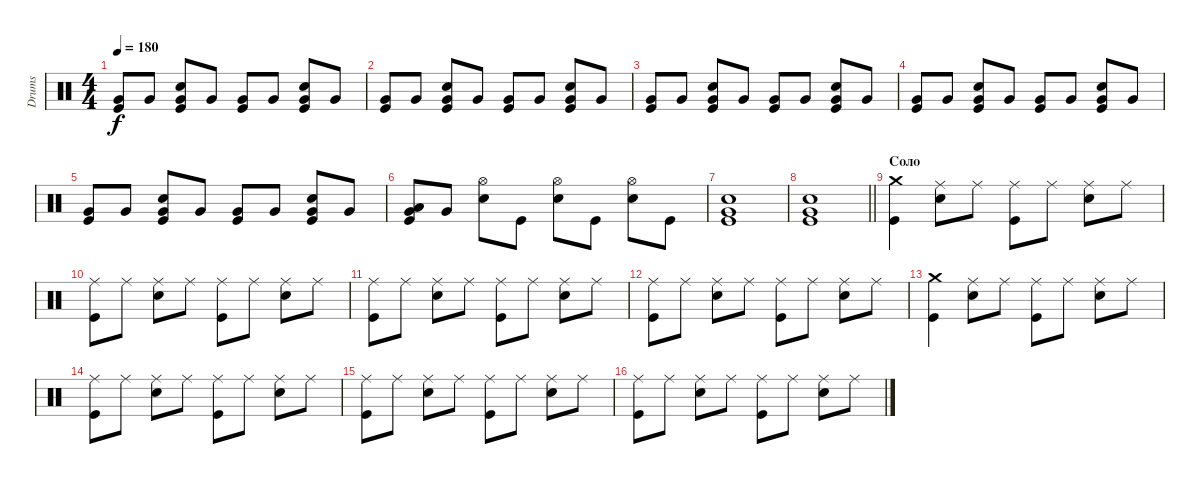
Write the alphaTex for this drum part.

\track ("Drums" "Drums") {instrument percussion}
\staff {score}
\articulation defaults
\ts (4 4)
\tempo 180
\clef neutral
\ks c
("Kick (hit)" "Very Low Tom (hit)").8{dy f} "Very Low Tom (hit)".8 ("Kick (hit)" "Snare (hit) 2" "Very Low Tom (hit)").8{bd 60} "Very Low Tom (hit)".8 ("Kick (hit)" "Very Low Tom (hit)").8 "Very Low Tom (hit)".8 ("Kick (hit)" "Snare (hit) 2" "Very Low Tom (hit)").8{bd 60} "Very Low Tom (hit)".8 |
("Kick (hit)" "Very Low Tom (hit)").8 "Very Low Tom (hit)".8 ("Kick (hit)" "Snare (hit) 2" "Very Low Tom (hit)").8{bd 60} "Very Low Tom (hit)".8 ("Kick (hit)" "Very Low Tom (hit)").8 "Very Low Tom (hit)".8 ("Kick (hit)" "Snare (hit) 2" "Very Low Tom (hit)").8{bd 60} "Very Low Tom (hit)".8 |
("Kick (hit)" "Very Low Tom (hit)").8 "Very Low Tom (hit)".8 ("Kick (hit)" "Snare (hit) 2" "Very Low Tom (hit)").8{bd 60} "Very Low Tom (hit)".8 ("Kick (hit)" "Very Low Tom (hit)").8 "Very Low Tom (hit)".8 ("Kick (hit)" "Snare (hit) 2" "Very Low Tom (hit)").8{bd 60} "Very Low Tom (hit)".8 |
("Kick (hit)" "Very Low Tom (hit)").8 "Very Low Tom (hit)".8 ("Kick (hit)" "Snare (hit) 2" "Very Low Tom (hit)").8{bd 60} "Very Low Tom (hit)".8 ("Kick (hit)" "Very Low Tom (hit)").8 "Very Low Tom (hit)".8 ("Kick (hit)" "Snare (hit) 2" "Very Low Tom (hit)").8{bd 60} "Very Low Tom (hit)".8 |
("Kick (hit)" "Very Low Tom (hit)").8 "Very Low Tom (hit)".8 ("Kick (hit)" "Snare (hit) 2" "Very Low Tom (hit)").8{bd 60} "Very Low Tom (hit)".8 ("Kick (hit)" "Very Low Tom (hit)").8 "Very Low Tom (hit)".8 ("Kick (hit)" "Snare (hit) 2" "Very Low Tom (hit)").8{bd 60} "Very Low Tom (hit)".8 |
("Kick (hit)" "Low Tom (hit)" "Very Low Tom (hit)").8{bd 60} "Very Low Tom (hit)".8 ("Snare (hit) 2" "Hi-Hat (open)").8 "Kick (hit)".8 ("Snare (hit) 2" "Hi-Hat (open)").8 "Kick (hit)".8 ("Snare (hit) 2" "Hi-Hat (open)").8 "Kick (hit)".8 |
("Kick (hit)" "Snare (hit) 2" "Very Low Tom (hit)").1 |
\barLineRight lightlight
("Kick (hit)" "Snare (hit) 2" "Very Low Tom (hit)").1 |
\section ("" "Соло")
("Kick (hit)" "Crash medium (hit)").4 ("Snare (hit) 2" "Ride (middle)").8 "Ride (middle)".8 ("Kick (hit)" "Ride (middle)").8 "Ride (middle)".8 ("Snare (hit) 2" "Ride (middle)").8 "Ride (middle)".8 |
("Kick (hit)" "Ride (middle)").8 "Ride (middle)".8 ("Snare (hit) 2" "Ride (middle)").8 "Ride (middle)".8 ("Kick (hit)" "Ride (middle)").8 "Ride (middle)".8 ("Snare (hit) 2" "Ride (middle)").8 "Ride (middle)".8 |
("Kick (hit)" "Ride (middle)").8 "Ride (middle)".8 ("Snare (hit) 2" "Ride (middle)").8 "Ride (middle)".8 ("Kick (hit)" "Ride (middle)").8 "Ride (middle)".8 ("Snare (hit) 2" "Ride (middle)").8 "Ride (middle)".8 |
("Kick (hit)" "Ride (middle)").8 "Ride (middle)".8 ("Snare (hit) 2" "Ride (middle)").8 "Ride (middle)".8 ("Kick (hit)" "Ride (middle)").8 "Ride (middle)".8 ("Snare (hit) 2" "Ride (middle)").8 "Ride (middle)".8 |
("Kick (hit)" "Crash medium (hit)").4 ("Snare (hit) 2" "Ride (middle)").8 "Ride (middle)".8 ("Kick (hit)" "Ride (middle)").8 "Ride (middle)".8 ("Snare (hit) 2" "Ride (middle)").8 "Ride (middle)".8 |
("Kick (hit)" "Ride (middle)").8 "Ride (middle)".8 ("Snare (hit) 2" "Ride (middle)").8 "Ride (middle)".8 ("Kick (hit)" "Ride (middle)").8 "Ride (middle)".8 ("Snare (hit) 2" "Ride (middle)").8 "Ride (middle)".8 |
("Kick (hit)" "Ride (middle)").8 "Ride (middle)".8 ("Snare (hit) 2" "Ride (middle)").8 "Ride (middle)".8 ("Kick (hit)" "Ride (middle)").8 "Ride (middle)".8 ("Snare (hit) 2" "Ride (middle)").8 "Ride (middle)".8 |
("Kick (hit)" "Ride (middle)").8 "Ride (middle)".8 ("Snare (hit) 2" "Ride (middle)").8 "Ride (middle)".8 ("Kick (hit)" "Ride (middle)").8 "Ride (middle)".8 ("Snare (hit) 2" "Ride (middle)").8 "Ride (middle)".8
